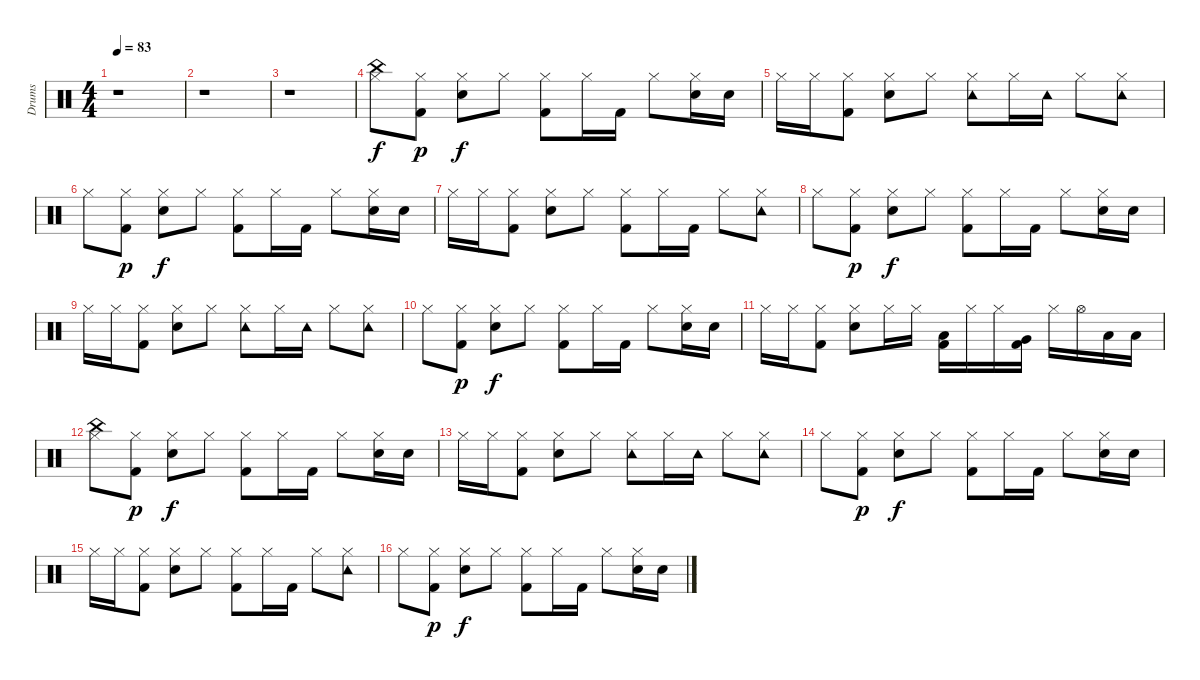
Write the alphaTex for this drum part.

\track ("Drums" "Drums") {instrument percussion}
\staff {score}
\articulation defaults
\ts (4 4)
\tempo 83
\clef neutral
\ks c
r.1{dy f} |
r.1 |
r.1 |
("China (hit)" "Hi-Hat (closed)").8 ("Hi-Hat (closed)" "Kick (hit) 2").8{dy p} ("Snare (hit) 2" "Hi-Hat (closed)").8{dy f} "Hi-Hat (closed)".8 ("Kick (hit) 2" "Hi-Hat (closed)").8 "Hi-Hat (closed)".16 "Kick (hit) 2".16 "Hi-Hat (closed)".8 ("Hand Clap (hit)" "Hi-Hat (closed)").16 "Hand Clap (hit)".16 |
"Hi-Hat (closed)".16 "Hi-Hat (closed)".16 ("Kick (hit) 2" "Hi-Hat (closed)").8 ("Snare (hit) 2" "Hi-Hat (closed)").8 "Hi-Hat (closed)".8 ("Tambourine (hit)" "Hi-Hat (closed)").8 "Hi-Hat (closed)".16 "Tambourine (hit)".16 "Hi-Hat (closed)".8 ("Tambourine (hit)" "Hi-Hat (closed)").8 |
"Hi-Hat (closed)".8 ("Hi-Hat (closed)" "Kick (hit) 2").8{dy p} ("Snare (hit) 2" "Hi-Hat (closed)").8{dy f} "Hi-Hat (closed)".8 ("Kick (hit) 2" "Hi-Hat (closed)").8 "Hi-Hat (closed)".16 "Kick (hit) 2".16 "Hi-Hat (closed)".8 ("Hand Clap (hit)" "Hi-Hat (closed)").16 "Hand Clap (hit)".16 |
"Hi-Hat (closed)".16 "Hi-Hat (closed)".16 ("Kick (hit) 2" "Hi-Hat (closed)").8 ("Snare (hit) 2" "Hi-Hat (closed)").8 "Hi-Hat (closed)".8 ("Kick (hit) 2" "Hi-Hat (closed)").8 "Hi-Hat (closed)".16 "Kick (hit) 2".16 "Hi-Hat (closed)".8 ("Tambourine (hit)" "Hi-Hat (closed)").8 |
"Hi-Hat (closed)".8 ("Hi-Hat (closed)" "Kick (hit) 2").8{dy p} ("Snare (hit) 2" "Hi-Hat (closed)").8{dy f} "Hi-Hat (closed)".8 ("Kick (hit) 2" "Hi-Hat (closed)").8 "Hi-Hat (closed)".16 "Kick (hit) 2".16 "Hi-Hat (closed)".8 ("Hand Clap (hit)" "Hi-Hat (closed)").16 "Hand Clap (hit)".16 |
"Hi-Hat (closed)".16 "Hi-Hat (closed)".16 ("Kick (hit) 2" "Hi-Hat (closed)").8 ("Snare (hit) 2" "Hi-Hat (closed)").8 "Hi-Hat (closed)".8 ("Tambourine (hit)" "Hi-Hat (closed)").8 "Hi-Hat (closed)".16 "Tambourine (hit)".16 "Hi-Hat (closed)".8 ("Tambourine (hit)" "Hi-Hat (closed)").8 |
"Hi-Hat (closed)".8 ("Hi-Hat (closed)" "Kick (hit) 2").8{dy p} ("Snare (hit) 2" "Hi-Hat (closed)").8{dy f} "Hi-Hat (closed)".8 ("Kick (hit) 2" "Hi-Hat (closed)").8 "Hi-Hat (closed)".16 "Kick (hit) 2".16 "Hi-Hat (closed)".8 ("Hand Clap (hit)" "Hi-Hat (closed)").16 "Hand Clap (hit)".16 |
"Hi-Hat (closed)".16 "Hi-Hat (closed)".16 ("Kick (hit) 2" "Hi-Hat (closed)").8 ("Snare (hit) 2" "Hi-Hat (closed)").8 "Hi-Hat (closed)".16 "Hi-Hat (closed)".16 ("Low Tom (hit)" "Kick (hit) 2").16 "Hi-Hat (closed)".16 "Hi-Hat (closed)".16 ("Very Low Tom (hit)" "Kick (hit) 2").16 "Hi-Hat (closed)".16 "Hi-Hat (open)".16 "Low Floor Tom (hit)".16 "Low Floor Tom (hit)".16 |
("China (hit)" "Hi-Hat (closed)").8 ("Hi-Hat (closed)" "Kick (hit) 2").8{dy p} ("Snare (hit) 2" "Hi-Hat (closed)").8{dy f} "Hi-Hat (closed)".8 ("Kick (hit) 2" "Hi-Hat (closed)").8 "Hi-Hat (closed)".16 "Kick (hit) 2".16 "Hi-Hat (closed)".8 ("Hand Clap (hit)" "Hi-Hat (closed)").16 "Hand Clap (hit)".16 |
"Hi-Hat (closed)".16 "Hi-Hat (closed)".16 ("Kick (hit) 2" "Hi-Hat (closed)").8 ("Snare (hit) 2" "Hi-Hat (closed)").8 "Hi-Hat (closed)".8 ("Tambourine (hit)" "Hi-Hat (closed)").8 "Hi-Hat (closed)".16 "Tambourine (hit)".16 "Hi-Hat (closed)".8 ("Tambourine (hit)" "Hi-Hat (closed)").8 |
"Hi-Hat (closed)".8 ("Hi-Hat (closed)" "Kick (hit) 2").8{dy p} ("Snare (hit) 2" "Hi-Hat (closed)").8{dy f} "Hi-Hat (closed)".8 ("Kick (hit) 2" "Hi-Hat (closed)").8 "Hi-Hat (closed)".16 "Kick (hit) 2".16 "Hi-Hat (closed)".8 ("Hand Clap (hit)" "Hi-Hat (closed)").16 "Hand Clap (hit)".16 |
"Hi-Hat (closed)".16 "Hi-Hat (closed)".16 ("Kick (hit) 2" "Hi-Hat (closed)").8 ("Snare (hit) 2" "Hi-Hat (closed)").8 "Hi-Hat (closed)".8 ("Kick (hit) 2" "Hi-Hat (closed)").8 "Hi-Hat (closed)".16 "Kick (hit) 2".16 "Hi-Hat (closed)".8 ("Tambourine (hit)" "Hi-Hat (closed)").8 |
"Hi-Hat (closed)".8 ("Hi-Hat (closed)" "Kick (hit) 2").8{dy p} ("Snare (hit) 2" "Hi-Hat (closed)").8{dy f} "Hi-Hat (closed)".8 ("Kick (hit) 2" "Hi-Hat (closed)").8 "Hi-Hat (closed)".16 "Kick (hit) 2".16 "Hi-Hat (closed)".8 ("Hand Clap (hit)" "Hi-Hat (closed)").16 "Hand Clap (hit)".16
